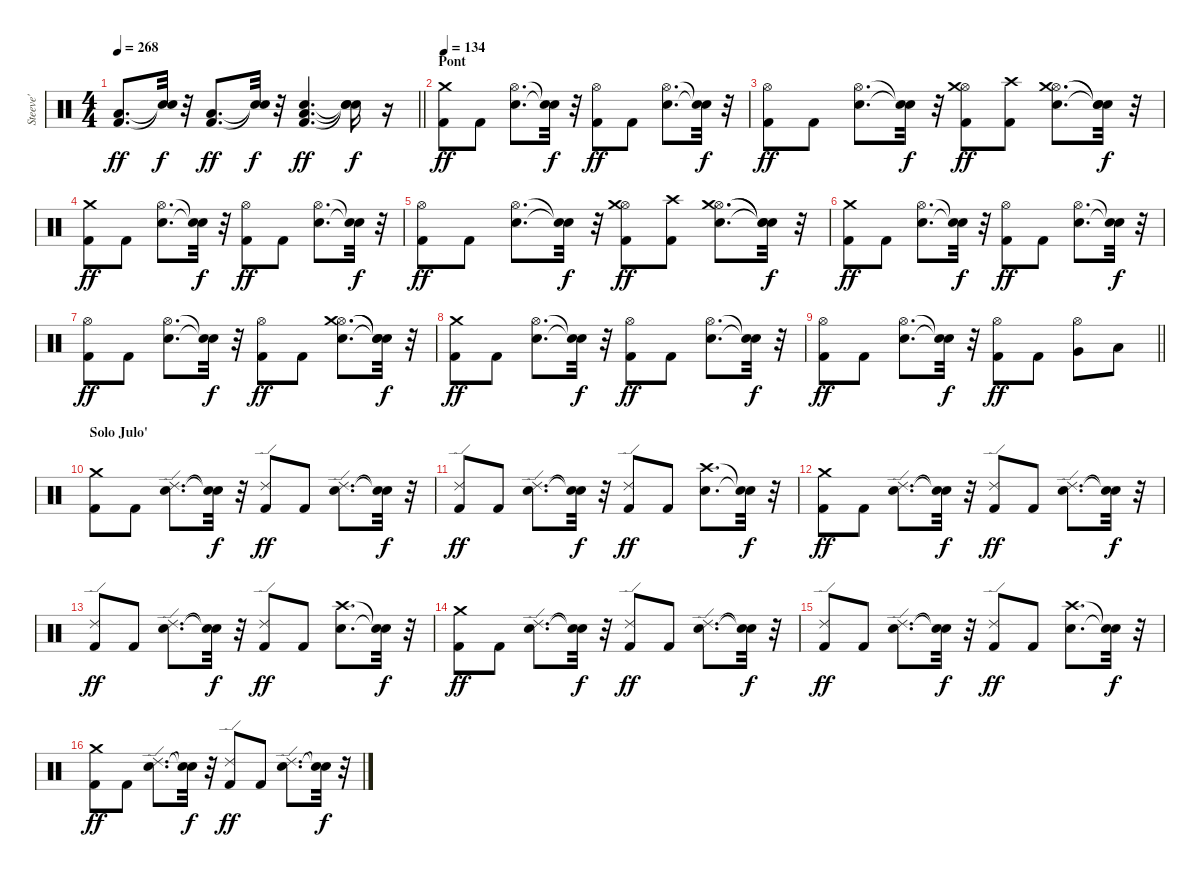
\track ("Steeve'" "Steeve'") {instrument percussion}
\staff {score}
\articulation defaults
\ts (4 4)
\tempo 268
\clef neutral
\barLineRight lightlight
\ks c
("Kick (hit) 2" "Low Floor Tom (hit)").8{d dy ff} ("Snare (hit)"{t} "Snare (hit)"{t}).32{dy f} r.32 ("Kick (hit) 2" "Low Floor Tom (hit)").8{d dy ff} ("Snare (hit)"{t} "Snare (hit)"{t}).32{dy f} r.32 ("Kick (hit) 2" "Electric Snare (hit)" "Low Floor Tom (hit)").4{d dy ff} ("Snare (hit)"{t} "Snare (hit)"{t} "Snare (hit)"{t}).16{dy f} r.16 |
\section ("" "Pont")
\tempo 134
("Kick (hit) 2" "Crash medium (hit)").8{dy ff} "Kick (hit) 2".8 ("Electric Snare (hit)" "Hi-Hat (open)").8{d} ("Snare (hit)"{t} "Snare (hit)"{t}).32{dy f} r.32 ("Kick (hit) 2" "Hi-Hat (open)").8{dy ff} "Kick (hit) 2".8 ("Electric Snare (hit)" "Hi-Hat (open)").8{d} ("Snare (hit)"{t} "Snare (hit)"{t}).32{dy f} r.32 |
("Kick (hit) 2" "Hi-Hat (open)").8{dy ff} "Kick (hit) 2".8 ("Electric Snare (hit)" "Hi-Hat (open)").8{d} ("Snare (hit)"{t} "Snare (hit)"{t}).32{dy f} r.32 ("Kick (hit) 2" "Hi-Hat (open)" "Crash medium (hit)").8{dy ff} ("Kick (hit) 2" "Crash high (hit)").8 ("Electric Snare (hit)" "Hi-Hat (open)" "Crash medium (hit)").8{d} ("Snare (hit)"{t} "Snare (hit)"{t} "Snare (hit)"{t}).32{dy f} r.32 |
("Kick (hit) 2" "Crash medium (hit)").8{dy ff} "Kick (hit) 2".8 ("Electric Snare (hit)" "Hi-Hat (open)").8{d} ("Snare (hit)"{t} "Snare (hit)"{t}).32{dy f} r.32 ("Kick (hit) 2" "Hi-Hat (open)").8{dy ff} "Kick (hit) 2".8 ("Electric Snare (hit)" "Hi-Hat (open)").8{d} ("Snare (hit)"{t} "Snare (hit)"{t}).32{dy f} r.32 |
("Kick (hit) 2" "Hi-Hat (open)").8{dy ff} "Kick (hit) 2".8 ("Electric Snare (hit)" "Hi-Hat (open)").8{d} ("Snare (hit)"{t} "Snare (hit)"{t}).32{dy f} r.32 ("Kick (hit) 2" "Hi-Hat (open)" "Crash medium (hit)").8{dy ff} ("Kick (hit) 2" "Crash high (hit)").8 ("Electric Snare (hit)" "Hi-Hat (open)" "Crash medium (hit)").8{d} ("Snare (hit)"{t} "Snare (hit)"{t} "Snare (hit)"{t}).32{dy f} r.32 |
("Kick (hit) 2" "Crash medium (hit)").8{dy ff} "Kick (hit) 2".8 ("Electric Snare (hit)" "Hi-Hat (open)").8{d} ("Snare (hit)"{t} "Snare (hit)"{t}).32{dy f} r.32 ("Kick (hit) 2" "Hi-Hat (open)").8{dy ff} "Kick (hit) 2".8 ("Electric Snare (hit)" "Hi-Hat (open)").8{d} ("Snare (hit)"{t} "Snare (hit)"{t}).32{dy f} r.32 |
("Kick (hit) 2" "Hi-Hat (open)").8{dy ff} "Kick (hit) 2".8 ("Electric Snare (hit)" "Hi-Hat (open)").8{d} ("Snare (hit)"{t} "Snare (hit)"{t}).32{dy f} r.32 ("Kick (hit) 2" "Hi-Hat (open)").8{dy ff} "Kick (hit) 2".8 ("Electric Snare (hit)" "Hi-Hat (open)" "Crash medium (hit)").8{d} ("Snare (hit)"{t} "Snare (hit)"{t} "Snare (hit)"{t}).32{dy f} r.32 |
("Kick (hit) 2" "Crash medium (hit)").8{dy ff} "Kick (hit) 2".8 ("Electric Snare (hit)" "Hi-Hat (open)").8{d} ("Snare (hit)"{t} "Snare (hit)"{t}).32{dy f} r.32 ("Kick (hit) 2" "Hi-Hat (open)").8{dy ff} "Kick (hit) 2".8 ("Electric Snare (hit)" "Hi-Hat (open)").8{d} ("Snare (hit)"{t} "Snare (hit)"{t}).32{dy f} r.32 |
\barLineRight lightlight
("Kick (hit) 2" "Hi-Hat (open)").8{dy ff} "Kick (hit) 2".8 ("Electric Snare (hit)" "Hi-Hat (open)").8{d} ("Snare (hit)"{t} "Snare (hit)"{t}).32{dy f} r.32 ("Kick (hit) 2" "Hi-Hat (open)").8{dy ff} "Kick (hit) 2".8 ("Very Low Tom (hit)" "Hi-Hat (open)").8 "Low Floor Tom (hit)".8 |
\section ("" "Solo Julo'")
("Kick (hit) 2" "Crash medium (hit)").8 "Kick (hit) 2".8 ("Electric Snare (hit)" "Ride (edge) 2").8{d} ("Snare (hit)"{t} "Snare (hit)"{t}).32{dy f} r.32 ("Kick (hit) 2" "Ride (edge) 2").8{dy ff} "Kick (hit) 2".8 ("Electric Snare (hit)" "Ride (edge) 2").8{d} ("Snare (hit)"{t} "Snare (hit)"{t}).32{dy f} r.32 |
("Kick (hit) 2" "Ride (edge) 2").8{dy ff} "Kick (hit) 2".8 ("Electric Snare (hit)" "Ride (edge) 2").8{d} ("Snare (hit)"{t} "Snare (hit)"{t}).32{dy f} r.32 ("Kick (hit) 2" "Ride (edge) 2").8{dy ff} "Kick (hit) 2".8 ("Electric Snare (hit)" "Crash high (hit)").8{d} ("Snare (hit)"{t} "Snare (hit)"{t}).32{dy f} r.32 |
("Kick (hit) 2" "Crash medium (hit)").8{dy ff} "Kick (hit) 2".8 ("Electric Snare (hit)" "Ride (edge) 2").8{d} ("Snare (hit)"{t} "Snare (hit)"{t}).32{dy f} r.32 ("Kick (hit) 2" "Ride (edge) 2").8{dy ff} "Kick (hit) 2".8 ("Electric Snare (hit)" "Ride (edge) 2").8{d} ("Snare (hit)"{t} "Snare (hit)"{t}).32{dy f} r.32 |
("Kick (hit) 2" "Ride (edge) 2").8{dy ff} "Kick (hit) 2".8 ("Electric Snare (hit)" "Ride (edge) 2").8{d} ("Snare (hit)"{t} "Snare (hit)"{t}).32{dy f} r.32 ("Kick (hit) 2" "Ride (edge) 2").8{dy ff} "Kick (hit) 2".8 ("Electric Snare (hit)" "Crash high (hit)").8{d} ("Snare (hit)"{t} "Snare (hit)"{t}).32{dy f} r.32 |
("Kick (hit) 2" "Crash medium (hit)").8{dy ff} "Kick (hit) 2".8 ("Electric Snare (hit)" "Ride (edge) 2").8{d} ("Snare (hit)"{t} "Snare (hit)"{t}).32{dy f} r.32 ("Kick (hit) 2" "Ride (edge) 2").8{dy ff} "Kick (hit) 2".8 ("Electric Snare (hit)" "Ride (edge) 2").8{d} ("Snare (hit)"{t} "Snare (hit)"{t}).32{dy f} r.32 |
("Kick (hit) 2" "Ride (edge) 2").8{dy ff} "Kick (hit) 2".8 ("Electric Snare (hit)" "Ride (edge) 2").8{d} ("Snare (hit)"{t} "Snare (hit)"{t}).32{dy f} r.32 ("Kick (hit) 2" "Ride (edge) 2").8{dy ff} "Kick (hit) 2".8 ("Electric Snare (hit)" "Crash high (hit)").8{d} ("Snare (hit)"{t} "Snare (hit)"{t}).32{dy f} r.32 |
("Kick (hit) 2" "Crash medium (hit)").8{dy ff} "Kick (hit) 2".8 ("Electric Snare (hit)" "Ride (edge) 2").8{d} ("Snare (hit)"{t} "Snare (hit)"{t}).32{dy f} r.32 ("Kick (hit) 2" "Ride (edge) 2").8{dy ff} "Kick (hit) 2".8 ("Electric Snare (hit)" "Ride (edge) 2").8{d} ("Snare (hit)"{t} "Snare (hit)"{t}).32{dy f} r.32
